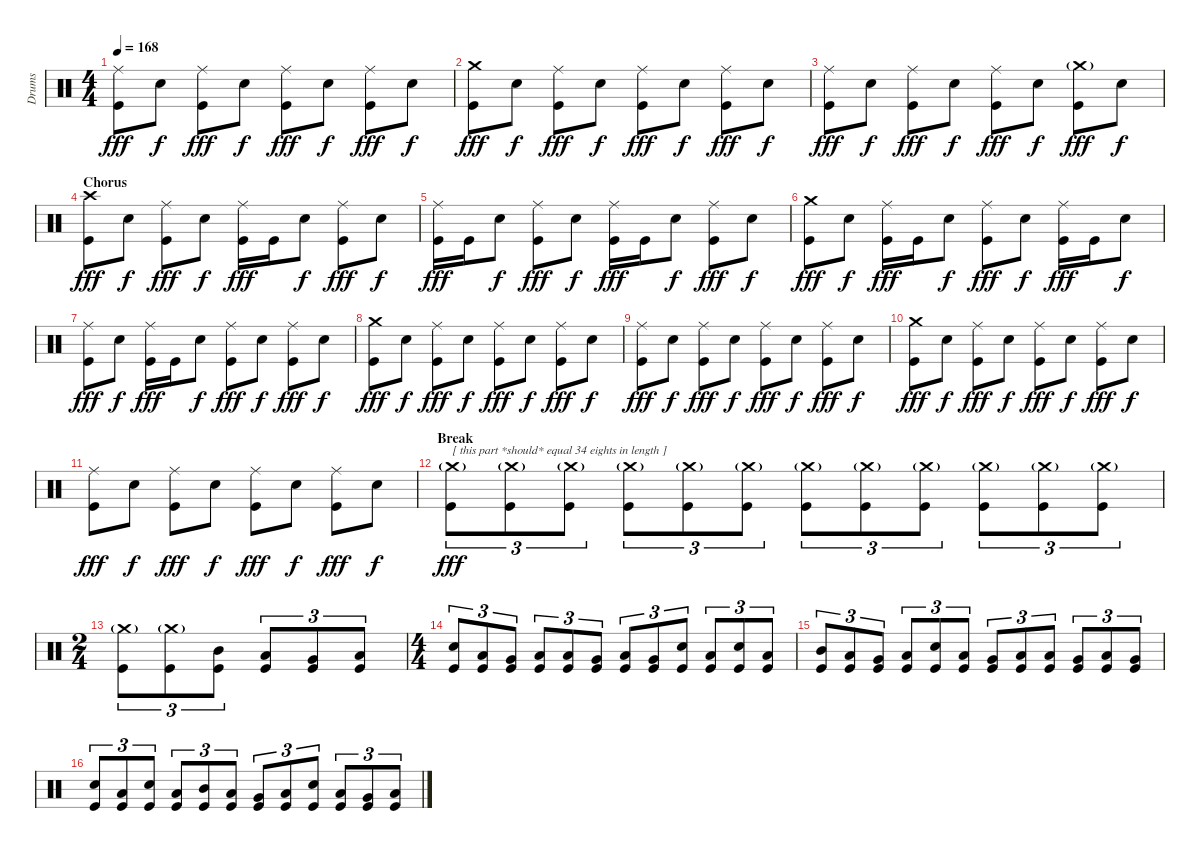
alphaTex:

\track ("Drums" "Drums") {instrument percussion}
\staff {score}
\articulation defaults
\ts (4 4)
\tempo 168
\clef neutral
\ks c
("Ride (middle)" "Kick (hit)").8{dy fff} "Snare (hit) 2".8{dy f} ("Ride (middle)" "Kick (hit)").8{dy fff} "Snare (hit) 2".8{dy f} ("Ride (middle)" "Kick (hit)").8{dy fff} "Snare (hit) 2".8{dy f} ("Ride (middle)" "Kick (hit)").8{dy fff} "Snare (hit) 2".8{dy f} |
("Crash medium (hit)" "Kick (hit)").8{dy fff} "Snare (hit) 2".8{dy f} ("Ride (middle)" "Kick (hit)").8{dy fff} "Snare (hit) 2".8{dy f} ("Ride (middle)" "Kick (hit)").8{dy fff} "Snare (hit) 2".8{dy f} ("Ride (middle)" "Kick (hit)").8{dy fff} "Snare (hit) 2".8{dy f} |
("Ride (middle)" "Kick (hit)").8{dy fff} "Snare (hit) 2".8{dy f} ("Ride (middle)" "Kick (hit)").8{dy fff} "Snare (hit) 2".8{dy f} ("Ride (middle)" "Kick (hit)").8{dy fff} "Snare (hit) 2".8{dy f} ("Crash medium (hit)"{g} "Kick (hit)").8{dy fff} "Snare (hit) 2".8{dy f} |
\section ("" "Chorus")
("Crash high (hit)" "Kick (hit)").8{dy fff} "Snare (hit) 2".8{dy f} ("Ride (middle)" "Kick (hit)").8{dy fff} "Snare (hit) 2".8{dy f} ("Ride (middle)" "Kick (hit)").16{dy fff} "Kick (hit)".16 "Snare (hit) 2".8{dy f} ("Ride (middle)" "Kick (hit)").8{dy fff} "Snare (hit) 2".8{dy f} |
("Ride (middle)" "Kick (hit)").16{dy fff} "Kick (hit)".16 "Snare (hit) 2".8{dy f} ("Ride (middle)" "Kick (hit)").8{dy fff} "Snare (hit) 2".8{dy f} ("Ride (middle)" "Kick (hit)").16{dy fff} "Kick (hit)".16 "Snare (hit) 2".8{dy f} ("Ride (middle)" "Kick (hit)").8{dy fff} "Snare (hit) 2".8{dy f} |
("Crash medium (hit)" "Kick (hit)").8{dy fff} "Snare (hit) 2".8{dy f} ("Ride (middle)" "Kick (hit)").16{dy fff} "Kick (hit)".16 "Snare (hit) 2".8{dy f} ("Ride (middle)" "Kick (hit)").8{dy fff} "Snare (hit) 2".8{dy f} ("Ride (middle)" "Kick (hit)").16{dy fff} "Kick (hit)".16 "Snare (hit) 2".8{dy f} |
("Ride (middle)" "Kick (hit)").8{dy fff} "Snare (hit) 2".8{dy f} ("Ride (middle)" "Kick (hit)").16{dy fff} "Kick (hit)".16 "Snare (hit) 2".8{dy f} ("Ride (middle)" "Kick (hit)").8{dy fff} "Snare (hit) 2".8{dy f} ("Ride (middle)" "Kick (hit)").8{dy fff} "Snare (hit) 2".8{dy f} |
("Crash medium (hit)" "Kick (hit)").8{dy fff} "Snare (hit) 2".8{dy f} ("Ride (middle)" "Kick (hit)").8{dy fff} "Snare (hit) 2".8{dy f} ("Ride (middle)" "Kick (hit)").8{dy fff} "Snare (hit) 2".8{dy f} ("Ride (middle)" "Kick (hit)").8{dy fff} "Snare (hit) 2".8{dy f} |
("Ride (middle)" "Kick (hit)").8{dy fff} "Snare (hit) 2".8{dy f} ("Ride (middle)" "Kick (hit)").8{dy fff} "Snare (hit) 2".8{dy f} ("Ride (middle)" "Kick (hit)").8{dy fff} "Snare (hit) 2".8{dy f} ("Ride (middle)" "Kick (hit)").8{dy fff} "Snare (hit) 2".8{dy f} |
("Crash medium (hit)" "Kick (hit)").8{dy fff} "Snare (hit) 2".8{dy f} ("Ride (middle)" "Kick (hit)").8{dy fff} "Snare (hit) 2".8{dy f} ("Ride (middle)" "Kick (hit)").8{dy fff} "Snare (hit) 2".8{dy f} ("Ride (middle)" "Kick (hit)").8{dy fff} "Snare (hit) 2".8{dy f} |
("Ride (middle)" "Kick (hit)").8{dy fff} "Snare (hit) 2".8{dy f} ("Ride (middle)" "Kick (hit)").8{dy fff} "Snare (hit) 2".8{dy f} ("Ride (middle)" "Kick (hit)").8{dy fff} "Snare (hit) 2".8{dy f} ("Ride (middle)" "Kick (hit)").8{dy fff} "Snare (hit) 2".8{dy f} |
\section ("" "Break")
("Crash medium (hit)"{g} "Kick (hit)").8{tu (3 2) txt "[ this part *should* equal 34 eights in length ]" dy fff} ("Crash medium (hit)"{g} "Kick (hit)").8{tu (3 2)} ("Crash medium (hit)"{g} "Kick (hit)").8{tu (3 2)} ("Crash medium (hit)"{g} "Kick (hit)").8{tu (3 2)} ("Crash medium (hit)"{g} "Kick (hit)").8{tu (3 2)} ("Crash medium (hit)"{g} "Kick (hit)").8{tu (3 2)} ("Crash medium (hit)"{g} "Kick (hit)").8{tu (3 2)} ("Crash medium (hit)"{g} "Kick (hit)").8{tu (3 2)} ("Crash medium (hit)"{g} "Kick (hit)").8{tu (3 2)} ("Crash medium (hit)"{g} "Kick (hit)").8{tu (3 2)} ("Crash medium (hit)"{g} "Kick (hit)").8{tu (3 2)} ("Crash medium (hit)"{g} "Kick (hit)").8{tu (3 2)} |
\ts (2 4)
("Crash medium (hit)"{g} "Kick (hit)").8{tu (3 2)} ("Crash medium (hit)"{g} "Kick (hit)").8{tu (3 2)} ("Mid Tom (hit)" "Kick (hit)").8{tu (3 2)} ("Low Tom (hit)" "Kick (hit)").8{tu (3 2)} ("Very Low Tom (hit)" "Kick (hit)").8{tu (3 2)} ("Low Floor Tom (hit)" "Kick (hit)").8{tu (3 2)} |
\ts (4 4)
("Snare (hit) 2" "Kick (hit)").8{tu (3 2)} ("Low Tom (hit)" "Kick (hit)").8{tu (3 2)} ("Very Low Tom (hit)" "Kick (hit)").8{tu (3 2)} ("Low Floor Tom (hit)" "Kick (hit)").8{tu (3 2)} ("Low Tom (hit)" "Kick (hit)").8{tu (3 2)} ("Very Low Tom (hit)" "Kick (hit)").8{tu (3 2)} ("Low Tom (hit)" "Kick (hit)").8{tu (3 2)} ("Very Low Tom (hit)" "Kick (hit)").8{tu (3 2)} ("Snare (hit) 2" "Kick (hit)").8{tu (3 2)} ("Low Tom (hit)" "Kick (hit)").8{tu (3 2)} ("Snare (hit) 2" "Kick (hit)").8{tu (3 2)} ("Low Tom (hit)" "Kick (hit)").8{tu (3 2)} |
("Mid Tom (hit)" "Kick (hit)").8{tu (3 2)} ("Low Tom (hit)" "Kick (hit)").8{tu (3 2)} ("Very Low Tom (hit)" "Kick (hit)").8{tu (3 2)} ("Low Floor Tom (hit)" "Kick (hit)").8{tu (3 2)} ("Snare (hit) 2" "Kick (hit)").8{tu (3 2)} ("Low Tom (hit)" "Kick (hit)").8{tu (3 2)} ("Very Low Tom (hit)" "Kick (hit)").8{tu (3 2)} ("Low Floor Tom (hit)" "Kick (hit)").8{tu (3 2)} ("Low Tom (hit)" "Kick (hit)").8{tu (3 2)} ("Very Low Tom (hit)" "Kick (hit)").8{tu (3 2)} ("Low Tom (hit)" "Kick (hit)").8{tu (3 2)} ("Very Low Tom (hit)" "Kick (hit)").8{tu (3 2)} |
("Snare (hit) 2" "Kick (hit)").8{tu (3 2)} ("Low Tom (hit)" "Kick (hit)").8{tu (3 2)} ("Snare (hit) 2" "Kick (hit)").8{tu (3 2)} ("Low Tom (hit)" "Kick (hit)").8{tu (3 2)} ("Mid Tom (hit)" "Kick (hit)").8{tu (3 2)} ("Low Tom (hit)" "Kick (hit)").8{tu (3 2)} ("Very Low Tom (hit)" "Kick (hit)").8{tu (3 2)} ("Low Floor Tom (hit)" "Kick (hit)").8{tu (3 2)} ("Snare (hit) 2" "Kick (hit)").8{tu (3 2)} ("Low Tom (hit)" "Kick (hit)").8{tu (3 2)} ("Very Low Tom (hit)" "Kick (hit)").8{tu (3 2)} ("Low Floor Tom (hit)" "Kick (hit)").8{tu (3 2)}
